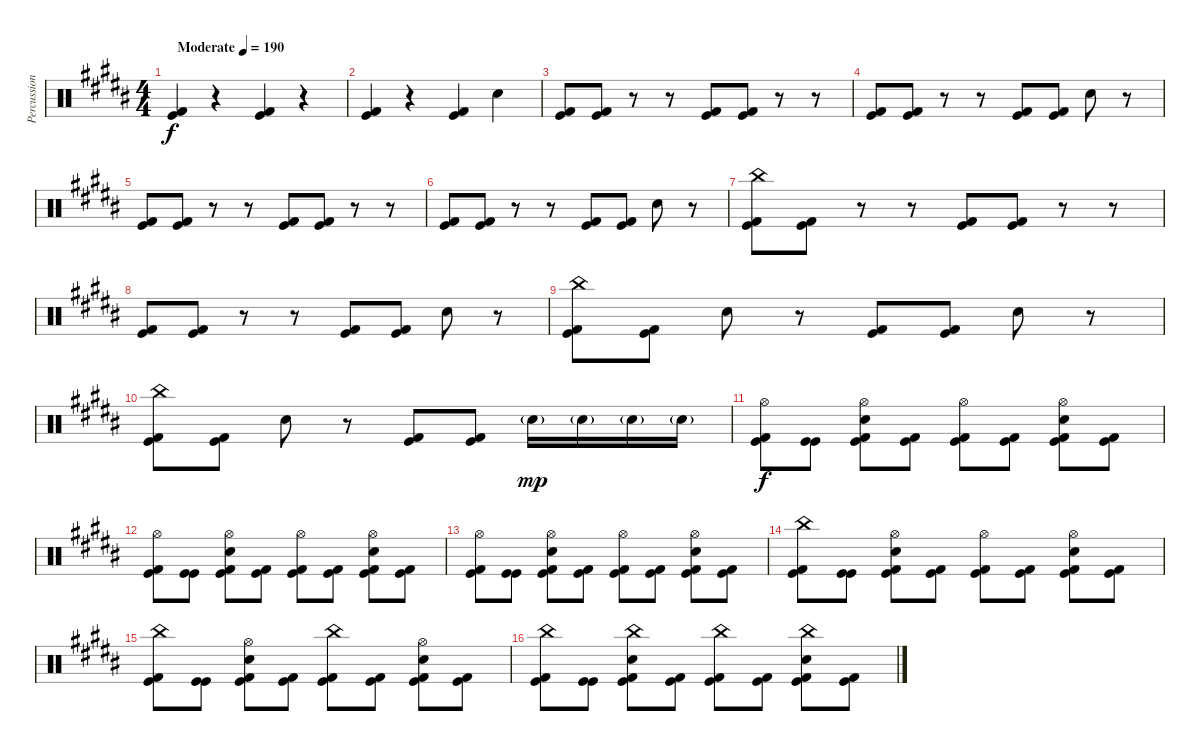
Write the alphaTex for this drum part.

\track ("Percussion" "Percussion") {instrument percussion}
\staff {score}
\articulation defaults
\ts (4 4)
\tempo (190 "Moderate")
\clef neutral
\ks g#minor
("Kick (hit)" "Kick (hit) 2").4{dy f} r.4 ("Kick (hit)" "Kick (hit) 2").4 r.4 |
("Kick (hit)" "Kick (hit) 2").4 r.4 ("Kick (hit)" "Kick (hit) 2").4 "Snare (hit) 2".4 |
("Kick (hit)" "Kick (hit) 2").8 ("Kick (hit)" "Kick (hit) 2").8 r.8 r.8 ("Kick (hit)" "Kick (hit) 2").8 ("Kick (hit)" "Kick (hit) 2").8 r.8 r.8 |
("Kick (hit)" "Kick (hit) 2").8 ("Kick (hit)" "Kick (hit) 2").8 r.8 r.8 ("Kick (hit)" "Kick (hit) 2").8 ("Kick (hit)" "Kick (hit) 2").8 "Snare (hit) 2".8 r.8 |
("Kick (hit)" "Kick (hit) 2").8 ("Kick (hit)" "Kick (hit) 2").8 r.8 r.8 ("Kick (hit)" "Kick (hit) 2").8 ("Kick (hit)" "Kick (hit) 2").8 r.8 r.8 |
("Kick (hit)" "Kick (hit) 2").8 ("Kick (hit)" "Kick (hit) 2").8 r.8 r.8 ("Kick (hit)" "Kick (hit) 2").8 ("Kick (hit)" "Kick (hit) 2").8 "Snare (hit) 2".8 r.8 |
("China (hit)" "Kick (hit)" "Kick (hit) 2").8 ("Kick (hit)" "Kick (hit) 2").8 r.8 r.8 ("Kick (hit)" "Kick (hit) 2").8 ("Kick (hit)" "Kick (hit) 2").8 r.8 r.8 |
("Kick (hit)" "Kick (hit) 2").8 ("Kick (hit)" "Kick (hit) 2").8 r.8 r.8 ("Kick (hit)" "Kick (hit) 2").8 ("Kick (hit)" "Kick (hit) 2").8 "Snare (hit) 2".8 r.8 |
("China (hit)" "Kick (hit)" "Kick (hit) 2").8 ("Kick (hit)" "Kick (hit) 2").8 "Snare (hit) 2".8 r.8 ("Kick (hit)" "Kick (hit) 2").8 ("Kick (hit)" "Kick (hit) 2").8 "Snare (hit) 2".8 r.8 |
("China (hit)" "Kick (hit)" "Kick (hit) 2").8 ("Kick (hit)" "Kick (hit) 2").8 "Snare (hit) 2".8 r.8 ("Kick (hit)" "Kick (hit) 2").8 ("Kick (hit)" "Kick (hit) 2").8 "Snare (hit) 2"{g}.16{dy mp} "Snare (hit) 2"{g}.16 "Snare (hit) 2"{g}.16 "Snare (hit) 2"{g}.16 |
("Hi-Hat (open)" "Kick (hit)" "Kick (hit) 2").8{dy f} ("Kick (hit)" "Kick (hit)").8 ("Hi-Hat (open)" "Snare (hit) 2" "Kick (hit)" "Kick (hit) 2").8 ("Kick (hit)" "Kick (hit) 2").8 ("Hi-Hat (open)" "Kick (hit)" "Kick (hit) 2").8 ("Kick (hit)" "Kick (hit) 2").8 ("Hi-Hat (open)" "Snare (hit) 2" "Kick (hit)" "Kick (hit) 2").8 ("Kick (hit)" "Kick (hit) 2").8 |
("Hi-Hat (open)" "Kick (hit)" "Kick (hit) 2").8 ("Kick (hit)" "Kick (hit)").8 ("Hi-Hat (open)" "Snare (hit) 2" "Kick (hit)" "Kick (hit) 2").8 ("Kick (hit)" "Kick (hit) 2").8 ("Hi-Hat (open)" "Kick (hit)" "Kick (hit) 2").8 ("Kick (hit)" "Kick (hit) 2").8 ("Hi-Hat (open)" "Snare (hit) 2" "Kick (hit)" "Kick (hit) 2").8 ("Kick (hit)" "Kick (hit) 2").8 |
("Hi-Hat (open)" "Kick (hit)" "Kick (hit) 2").8 ("Kick (hit)" "Kick (hit)").8 ("Hi-Hat (open)" "Snare (hit) 2" "Kick (hit)" "Kick (hit) 2").8 ("Kick (hit)" "Kick (hit) 2").8 ("Hi-Hat (open)" "Kick (hit)" "Kick (hit) 2").8 ("Kick (hit)" "Kick (hit) 2").8 ("Hi-Hat (open)" "Snare (hit) 2" "Kick (hit)" "Kick (hit) 2").8 ("Kick (hit)" "Kick (hit) 2").8 |
("China (hit)" "Kick (hit)" "Kick (hit) 2").8 ("Kick (hit)" "Kick (hit)").8 ("Hi-Hat (open)" "Snare (hit) 2" "Kick (hit)" "Kick (hit) 2").8 ("Kick (hit)" "Kick (hit) 2").8 ("Hi-Hat (open)" "Kick (hit)" "Kick (hit) 2").8 ("Kick (hit)" "Kick (hit) 2").8 ("Hi-Hat (open)" "Snare (hit) 2" "Kick (hit)" "Kick (hit) 2").8 ("Kick (hit)" "Kick (hit) 2").8 |
("China (hit)" "Kick (hit)" "Kick (hit) 2").8 ("Kick (hit)" "Kick (hit)").8 ("Hi-Hat (open)" "Snare (hit) 2" "Kick (hit)" "Kick (hit) 2").8 ("Kick (hit)" "Kick (hit) 2").8 ("China (hit)" "Kick (hit)" "Kick (hit) 2").8 ("Kick (hit)" "Kick (hit) 2").8 ("Hi-Hat (open)" "Snare (hit) 2" "Kick (hit)" "Kick (hit) 2").8 ("Kick (hit)" "Kick (hit) 2").8 |
("China (hit)" "Kick (hit)" "Kick (hit) 2").8 ("Kick (hit)" "Kick (hit)").8 ("China (hit)" "Snare (hit) 2" "Kick (hit)" "Kick (hit) 2").8 ("Kick (hit)" "Kick (hit) 2").8 ("China (hit)" "Kick (hit)" "Kick (hit) 2").8 ("Kick (hit)" "Kick (hit) 2").8 ("China (hit)" "Snare (hit) 2" "Kick (hit)" "Kick (hit) 2").8 ("Kick (hit)" "Kick (hit) 2").8
